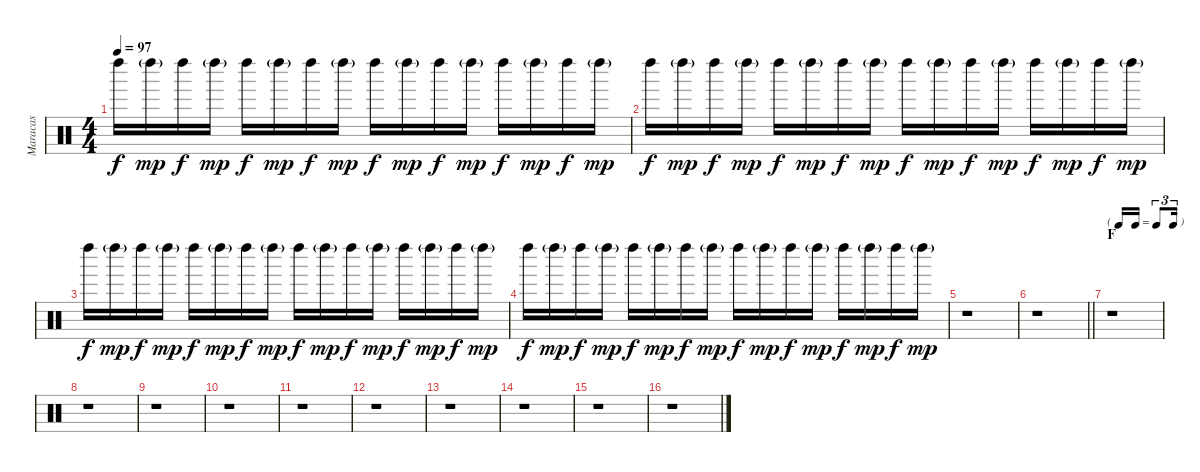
\track ("Maracas" "Maracas") {instrument percussion}
\staff {score}
\articulation defaults
\ts (4 4)
\tempo 97
\clef neutral
\ks c "Left Maraca (hit)".16{dy f} "Left Maraca (hit)"{g}.16{dy mp} "Left Maraca (hit)".16{dy f} "Left Maraca (hit)"{g}.16{dy mp} "Left Maraca (hit)".16{dy f} "Left Maraca (hit)"{g}.16{dy mp} "Left Maraca (hit)".16{dy f} "Left Maraca (hit)"{g}.16{dy mp} "Left Maraca (hit)".16{dy f} "Left Maraca (hit)"{g}.16{dy mp} "Left Maraca (hit)".16{dy f} "Left Maraca (hit)"{g}.16{dy mp} "Left Maraca (hit)".16{dy f} "Left Maraca (hit)"{g}.16{dy mp} "Left Maraca (hit)".16{dy f} "Left Maraca (hit)"{g}.16{dy mp}
|
"Left Maraca (hit)".16{dy f} "Left Maraca (hit)"{g}.16{dy mp} "Left Maraca (hit)".16{dy f} "Left Maraca (hit)"{g}.16{dy mp} "Left Maraca (hit)".16{dy f} "Left Maraca (hit)"{g}.16{dy mp} "Left Maraca (hit)".16{dy f} "Left Maraca (hit)"{g}.16{dy mp} "Left Maraca (hit)".16{dy f} "Left Maraca (hit)"{g}.16{dy mp} "Left Maraca (hit)".16{dy f} "Left Maraca (hit)"{g}.16{dy mp} "Left Maraca (hit)".16{dy f} "Left Maraca (hit)"{g}.16{dy mp} "Left Maraca (hit)".16{dy f} "Left Maraca (hit)"{g}.16{dy mp} |
"Left Maraca (hit)".16{dy f} "Left Maraca (hit)"{g}.16{dy mp} "Left Maraca (hit)".16{dy f} "Left Maraca (hit)"{g}.16{dy mp} "Left Maraca (hit)".16{dy f} "Left Maraca (hit)"{g}.16{dy mp} "Left Maraca (hit)".16{dy f} "Left Maraca (hit)"{g}.16{dy mp} "Left Maraca (hit)".16{dy f} "Left Maraca (hit)"{g}.16{dy mp} "Left Maraca (hit)".16{dy f} "Left Maraca (hit)"{g}.16{dy mp} "Left Maraca (hit)".16{dy f} "Left Maraca (hit)"{g}.16{dy mp} "Left Maraca (hit)".16{dy f} "Left Maraca (hit)"{g}.16{dy mp} |
"Left Maraca (hit)".16{dy f} "Left Maraca (hit)"{g}.16{dy mp} "Left Maraca (hit)".16{dy f} "Left Maraca (hit)"{g}.16{dy mp} "Left Maraca (hit)".16{dy f} "Left Maraca (hit)"{g}.16{dy mp} "Left Maraca (hit)".16{dy f} "Left Maraca (hit)"{g}.16{dy mp} "Left Maraca (hit)".16{dy f} "Left Maraca (hit)"{g}.16{dy mp} "Left Maraca (hit)".16{dy f} "Left Maraca (hit)"{g}.16{dy mp} "Left Maraca (hit)".16{dy f} "Left Maraca (hit)"{g}.16{dy mp} "Left Maraca (hit)".16{dy f} "Left Maraca (hit)"{g}.16{dy mp} |
r.1 |
\barLineRight lightlight
r.1 |
\tf triplet16th
\section ("" "F")
r.1 |
r.1 |
r.1 |
r.1 |
r.1 |
r.1 |
r.1 |
r.1 |
r.1 |
r.1
